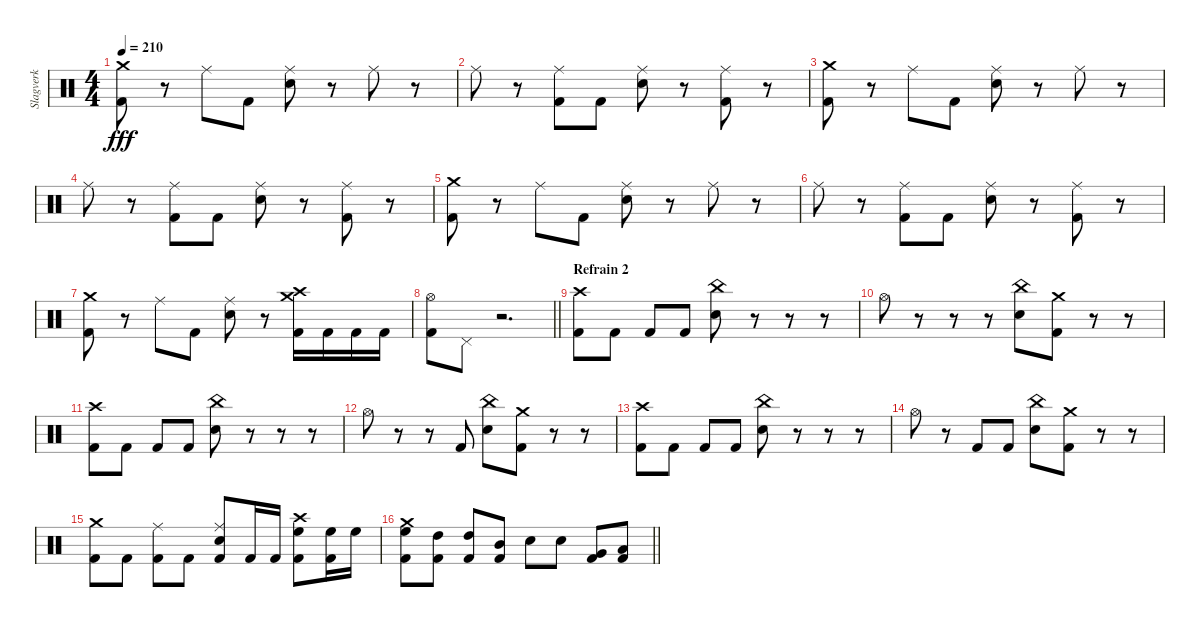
\track ("Slagverk" "Slagverk") {instrument percussion}
\staff {score}
\articulation defaults
\ts (4 4)
\tempo 210
\clef neutral
\ks c
("Crash medium (hit)" "Kick (hit) 2").8{dy fff} r.8 "Ride (middle)".8 "Kick (hit) 2".8 ("Ride (middle)" "Electric Snare (hit)").8 r.8 "Ride (middle)".8 r.8 |
"Ride (middle)".8 r.8 ("Ride (middle)" "Kick (hit) 2").8 "Kick (hit) 2".8 ("Ride (middle)" "Electric Snare (hit)").8 r.8 ("Ride (middle)" "Kick (hit) 2").8 r.8 |
("Crash medium (hit)" "Kick (hit) 2").8 r.8 "Ride (middle)".8 "Kick (hit) 2".8 ("Ride (middle)" "Electric Snare (hit)").8 r.8 "Ride (middle)".8 r.8 |
"Ride (middle)".8 r.8 ("Ride (middle)" "Kick (hit) 2").8 "Kick (hit) 2".8 ("Ride (middle)" "Electric Snare (hit)").8 r.8 ("Ride (middle)" "Kick (hit) 2").8 r.8 |
("Crash medium (hit)" "Kick (hit) 2").8 r.8 "Ride (middle)".8 "Kick (hit) 2".8 ("Ride (middle)" "Electric Snare (hit)").8 r.8 "Ride (middle)".8 r.8 |
"Ride (middle)".8 r.8 ("Ride (middle)" "Kick (hit) 2").8 "Kick (hit) 2".8 ("Ride (middle)" "Electric Snare (hit)").8 r.8 ("Ride (middle)" "Kick (hit) 2").8 r.8 |
("Crash medium (hit)" "Kick (hit) 2").8 r.8 "Ride (middle)".8 "Kick (hit) 2".8 ("Ride (middle)" "Electric Snare (hit)").8 r.8 ("Crash high (hit)" "Crash medium (hit)" "Kick (hit) 2").16 "Kick (hit) 2".16 "Kick (hit) 2".16 "Kick (hit) 2".16 |
\barLineRight lightlight
("Hi-Hat (open)" "Kick (hit) 2").8 "Pedal Hi-Hat (hit)".8 r.2{d} |
\section ("" "Refrain 2")
("Crash high (hit)" "Kick (hit) 2").8 "Kick (hit) 2".8 "Kick (hit) 2".8 "Kick (hit) 2".8 ("China (hit)" "Electric Snare (hit)").8 r.8 r.8 r.8 |
"Hi-Hat (open)".8 r.8 r.8 r.8 ("China (hit)" "Electric Snare (hit)").8 ("Crash medium (hit)" "Kick (hit) 2").8 r.8 r.8 |
("Crash high (hit)" "Kick (hit) 2").8 "Kick (hit) 2".8 "Kick (hit) 2".8 "Kick (hit) 2".8 ("China (hit)" "Electric Snare (hit)").8 r.8 r.8 r.8 |
"Hi-Hat (open)".8 r.8 r.8 "Kick (hit) 2".8 ("China (hit)" "Electric Snare (hit)").8 ("Crash medium (hit)" "Kick (hit) 2").8 r.8 r.8 |
("Crash high (hit)" "Kick (hit) 2").8 "Kick (hit) 2".8 "Kick (hit) 2".8 "Kick (hit) 2".8 ("China (hit)" "Electric Snare (hit)").8 r.8 r.8 r.8 |
"Hi-Hat (open)".8 r.8 "Kick (hit) 2".8 "Kick (hit) 2".8 ("China (hit)" "Electric Snare (hit)").8 ("Crash medium (hit)" "Kick (hit) 2").8 r.8 r.8 |
("Crash medium (hit)" "Kick (hit) 2").8 "Kick (hit) 2".8 ("Ride (middle)" "Kick (hit) 2").8 "Kick (hit) 2".8 ("Ride (middle)" "Electric Snare (hit)" "Kick (hit) 2").8 "Kick (hit) 2".16 "Kick (hit) 2".16 ("Crash high (hit)" "High Floor Tom (hit)" "Kick (hit) 2").8 ("High Floor Tom (hit)" "Kick (hit) 2").16 "High Floor Tom (hit)".16 |
\barLineRight lightlight
("Crash medium (hit)" "High Floor Tom (hit)" "Kick (hit) 2").8 ("High Tom (hit)" "Kick (hit) 2").8 ("High Tom (hit)" "Kick (hit) 2").8 ("Mid Tom (hit)" "Kick (hit) 2").8 "Electric Snare (hit)".8 "Electric Snare (hit)".8 ("Very Low Tom (hit)" "Kick (hit) 2").8 ("Low Floor Tom (hit)" "Kick (hit) 2").8
